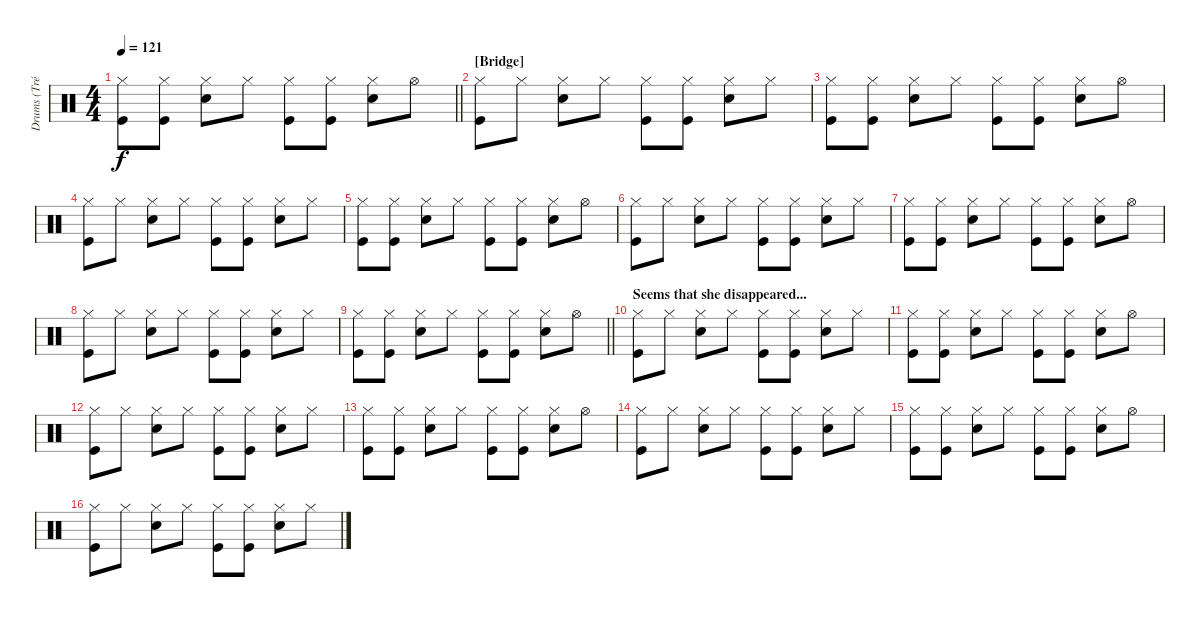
\track ("Drums (Tré)" "Drums (Tré") {instrument percussion}
\staff {score}
\articulation defaults
\ts (4 4)
\tempo 121
\clef neutral
\barLineRight lightlight
\ks c
("Hi-Hat (closed)" "Kick (hit)").8{dy f} ("Hi-Hat (closed)" "Kick (hit)").8 ("Hi-Hat (closed)" "Snare (hit) 2").8 "Hi-Hat (closed)".8 ("Hi-Hat (closed)" "Kick (hit)").8 ("Hi-Hat (closed)" "Kick (hit)").8 ("Hi-Hat (closed)" "Snare (hit) 2").8 "Hi-Hat (open)".8 |
\section ("" "[Bridge]")
("Hi-Hat (closed)" "Kick (hit)").8 "Hi-Hat (closed)".8 ("Hi-Hat (closed)" "Snare (hit) 2").8 "Hi-Hat (closed)".8 ("Hi-Hat (closed)" "Kick (hit)").8 ("Hi-Hat (closed)" "Kick (hit)").8 ("Hi-Hat (closed)" "Snare (hit) 2").8 "Hi-Hat (closed)".8 |
("Hi-Hat (closed)" "Kick (hit)").8 ("Hi-Hat (closed)" "Kick (hit)").8 ("Hi-Hat (closed)" "Snare (hit) 2").8 "Hi-Hat (closed)".8 ("Hi-Hat (closed)" "Kick (hit)").8 ("Hi-Hat (closed)" "Kick (hit)").8 ("Hi-Hat (closed)" "Snare (hit) 2").8 "Hi-Hat (open)".8 |
("Hi-Hat (closed)" "Kick (hit)").8 "Hi-Hat (closed)".8 ("Hi-Hat (closed)" "Snare (hit) 2").8 "Hi-Hat (closed)".8 ("Hi-Hat (closed)" "Kick (hit)").8 ("Hi-Hat (closed)" "Kick (hit)").8 ("Hi-Hat (closed)" "Snare (hit) 2").8 "Hi-Hat (closed)".8 |
("Hi-Hat (closed)" "Kick (hit)").8 ("Hi-Hat (closed)" "Kick (hit)").8 ("Hi-Hat (closed)" "Snare (hit) 2").8 "Hi-Hat (closed)".8 ("Hi-Hat (closed)" "Kick (hit)").8 ("Hi-Hat (closed)" "Kick (hit)").8 ("Hi-Hat (closed)" "Snare (hit) 2").8 "Hi-Hat (open)".8 |
("Hi-Hat (closed)" "Kick (hit)").8 "Hi-Hat (closed)".8 ("Hi-Hat (closed)" "Snare (hit) 2").8 "Hi-Hat (closed)".8 ("Hi-Hat (closed)" "Kick (hit)").8 ("Hi-Hat (closed)" "Kick (hit)").8 ("Hi-Hat (closed)" "Snare (hit) 2").8 "Hi-Hat (closed)".8 |
("Hi-Hat (closed)" "Kick (hit)").8 ("Hi-Hat (closed)" "Kick (hit)").8 ("Hi-Hat (closed)" "Snare (hit) 2").8 "Hi-Hat (closed)".8 ("Hi-Hat (closed)" "Kick (hit)").8 ("Hi-Hat (closed)" "Kick (hit)").8 ("Hi-Hat (closed)" "Snare (hit) 2").8 "Hi-Hat (open)".8 |
("Hi-Hat (closed)" "Kick (hit)").8 "Hi-Hat (closed)".8 ("Hi-Hat (closed)" "Snare (hit) 2").8 "Hi-Hat (closed)".8 ("Hi-Hat (closed)" "Kick (hit)").8 ("Hi-Hat (closed)" "Kick (hit)").8 ("Hi-Hat (closed)" "Snare (hit) 2").8 "Hi-Hat (closed)".8 |
\barLineRight lightlight
("Hi-Hat (closed)" "Kick (hit)").8 ("Hi-Hat (closed)" "Kick (hit)").8 ("Hi-Hat (closed)" "Snare (hit) 2").8 "Hi-Hat (closed)".8 ("Hi-Hat (closed)" "Kick (hit)").8 ("Hi-Hat (closed)" "Kick (hit)").8 ("Hi-Hat (closed)" "Snare (hit) 2").8 "Hi-Hat (open)".8 |
\section ("" "Seems that she disappeared...")
("Hi-Hat (closed)" "Kick (hit)").8 "Hi-Hat (closed)".8 ("Hi-Hat (closed)" "Snare (hit) 2").8 "Hi-Hat (closed)".8 ("Hi-Hat (closed)" "Kick (hit)").8 ("Hi-Hat (closed)" "Kick (hit)").8 ("Hi-Hat (closed)" "Snare (hit) 2").8 "Hi-Hat (closed)".8 |
("Hi-Hat (closed)" "Kick (hit)").8 ("Hi-Hat (closed)" "Kick (hit)").8 ("Hi-Hat (closed)" "Snare (hit) 2").8 "Hi-Hat (closed)".8 ("Hi-Hat (closed)" "Kick (hit)").8 ("Hi-Hat (closed)" "Kick (hit)").8 ("Hi-Hat (closed)" "Snare (hit) 2").8 "Hi-Hat (open)".8 |
("Hi-Hat (closed)" "Kick (hit)").8 "Hi-Hat (closed)".8 ("Hi-Hat (closed)" "Snare (hit) 2").8 "Hi-Hat (closed)".8 ("Hi-Hat (closed)" "Kick (hit)").8 ("Hi-Hat (closed)" "Kick (hit)").8 ("Hi-Hat (closed)" "Snare (hit) 2").8 "Hi-Hat (closed)".8 |
("Hi-Hat (closed)" "Kick (hit)").8 ("Hi-Hat (closed)" "Kick (hit)").8 ("Hi-Hat (closed)" "Snare (hit) 2").8 "Hi-Hat (closed)".8 ("Hi-Hat (closed)" "Kick (hit)").8 ("Hi-Hat (closed)" "Kick (hit)").8 ("Hi-Hat (closed)" "Snare (hit) 2").8 "Hi-Hat (open)".8 |
("Hi-Hat (closed)" "Kick (hit)").8 "Hi-Hat (closed)".8 ("Hi-Hat (closed)" "Snare (hit) 2").8 "Hi-Hat (closed)".8 ("Hi-Hat (closed)" "Kick (hit)").8 ("Hi-Hat (closed)" "Kick (hit)").8 ("Hi-Hat (closed)" "Snare (hit) 2").8 "Hi-Hat (closed)".8 |
("Hi-Hat (closed)" "Kick (hit)").8 ("Hi-Hat (closed)" "Kick (hit)").8 ("Hi-Hat (closed)" "Snare (hit) 2").8 "Hi-Hat (closed)".8 ("Hi-Hat (closed)" "Kick (hit)").8 ("Hi-Hat (closed)" "Kick (hit)").8 ("Hi-Hat (closed)" "Snare (hit) 2").8 "Hi-Hat (open)".8 |
("Hi-Hat (closed)" "Kick (hit)").8 "Hi-Hat (closed)".8 ("Hi-Hat (closed)" "Snare (hit) 2").8 "Hi-Hat (closed)".8 ("Hi-Hat (closed)" "Kick (hit)").8 ("Hi-Hat (closed)" "Kick (hit)").8 ("Hi-Hat (closed)" "Snare (hit) 2").8 "Hi-Hat (closed)".8
